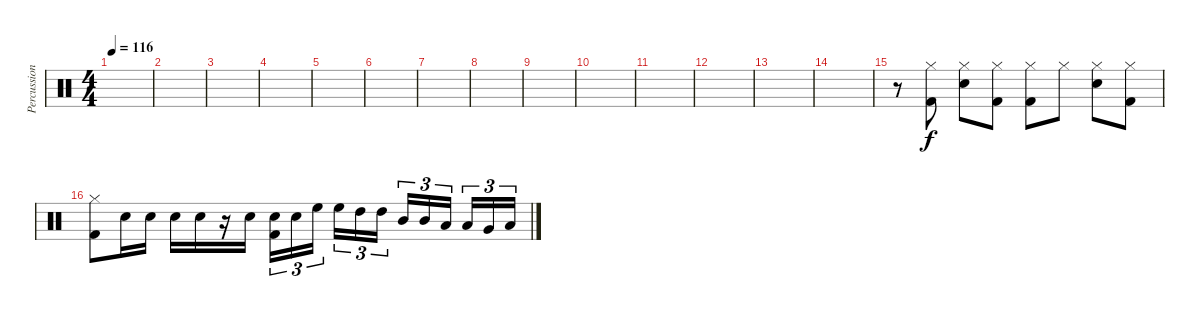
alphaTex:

\track ("Percussion" "Percussion") {instrument percussion}
\staff {score}
\articulation defaults
\ts (4 4)
\tempo 116
\clef neutral
\ks c
|
|
|
|
|
|
|
|
|
|
|
|
|
|
r.8 ("Hi-Hat (closed)" "Kick (hit) 2").8 ("Hi-Hat (closed)" "Snare (hit) 2").8 ("Hi-Hat (closed)" "Kick (hit) 2").8 ("Hi-Hat (closed)" "Kick (hit) 2").8 "Hi-Hat (closed)".8 ("Hi-Hat (closed)" "Snare (hit) 2").8 ("Hi-Hat (closed)" "Kick (hit) 2").8 |
("Hi-Hat (closed)" "Kick (hit) 2").8 "Snare (hit) 2".16 "Snare (hit) 2".16 "Snare (hit) 2".16 "Snare (hit) 2".16 r.16 "Snare (hit) 2".16 ("Snare (hit) 2" "Kick (hit) 2").16{tu (3 2)} "Snare (hit) 2".16{tu (3 2)} "High Floor Tom (hit)".16{tu (3 2)} "High Floor Tom (hit)".16{tu (3 2)} "High Tom (hit)".16{tu (3 2)} "High Tom (hit)".16{tu (3 2)} "Mid Tom (hit)".16{tu (3 2)} "Mid Tom (hit)".16{tu (3 2)} "Low Tom (hit)".16{tu (3 2)} "Low Tom (hit)".16{tu (3 2)} "Very Low Tom (hit)".16{tu (3 2)} "Low Floor Tom (hit)".16{tu (3 2)}
